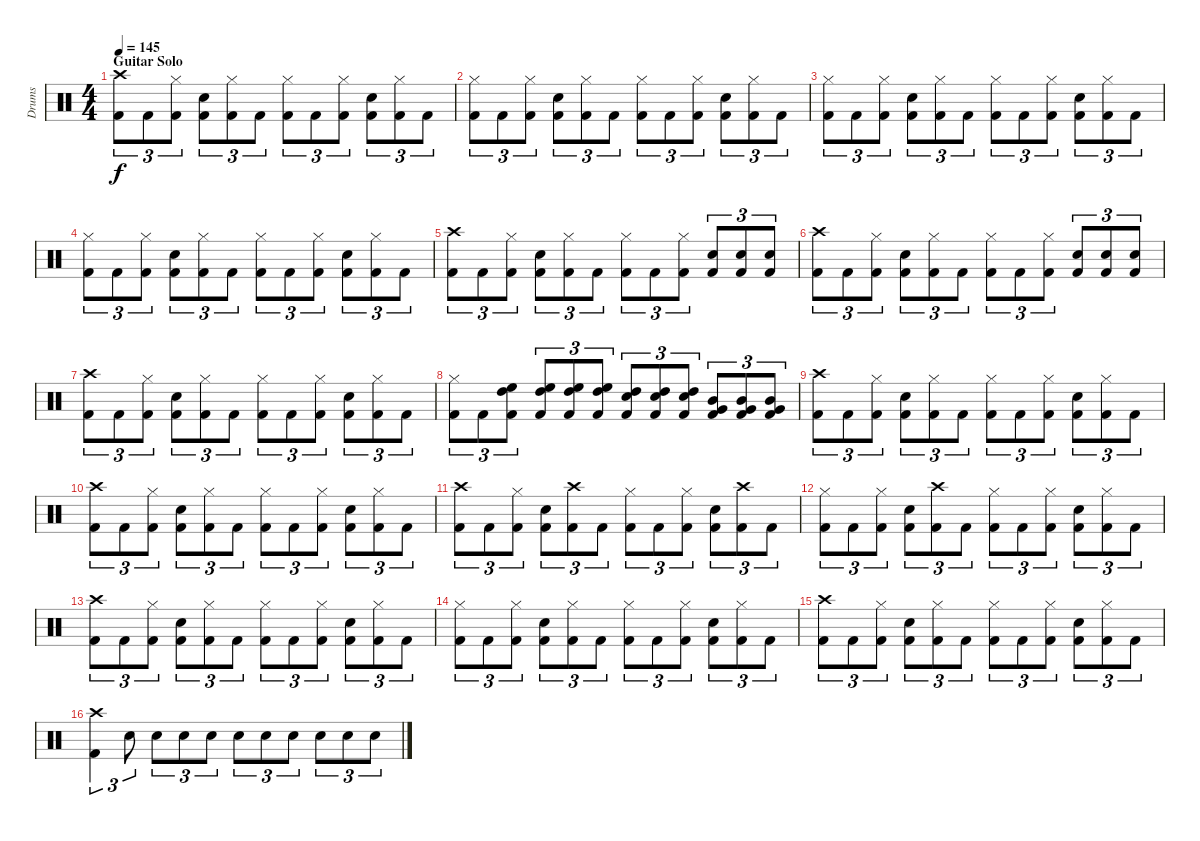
\track ("Drums" "Drums") {instrument percussion}
\staff {score}
\articulation defaults
\ts (4 4)
\section ("" "Guitar Solo")
\tempo 145
\clef neutral
\ks c
("Crash high (hit)" "Kick (hit) 2").8{tu (3 2) dy f} "Kick (hit) 2".8{tu (3 2)} ("Hi-Hat (closed)" "Kick (hit) 2").8{tu (3 2)} ("Snare (hit) 2" "Kick (hit) 2").8{tu (3 2)} ("Hi-Hat (closed)" "Kick (hit) 2").8{tu (3 2)} "Kick (hit) 2".8{tu (3 2)} ("Hi-Hat (closed)" "Kick (hit) 2").8{tu (3 2)} "Kick (hit) 2".8{tu (3 2)} ("Hi-Hat (closed)" "Kick (hit) 2").8{tu (3 2)} ("Snare (hit) 2" "Kick (hit) 2").8{tu (3 2)} ("Hi-Hat (closed)" "Kick (hit) 2").8{tu (3 2)} "Kick (hit) 2".8{tu (3 2)} |
("Kick (hit) 2" "Hi-Hat (closed)").8{tu (3 2)} "Kick (hit) 2".8{tu (3 2)} ("Hi-Hat (closed)" "Kick (hit) 2").8{tu (3 2)} ("Snare (hit) 2" "Kick (hit) 2").8{tu (3 2)} ("Hi-Hat (closed)" "Kick (hit) 2").8{tu (3 2)} "Kick (hit) 2".8{tu (3 2)} ("Hi-Hat (closed)" "Kick (hit) 2").8{tu (3 2)} "Kick (hit) 2".8{tu (3 2)} ("Hi-Hat (closed)" "Kick (hit) 2").8{tu (3 2)} ("Snare (hit) 2" "Kick (hit) 2").8{tu (3 2)} ("Hi-Hat (closed)" "Kick (hit) 2").8{tu (3 2)} "Kick (hit) 2".8{tu (3 2)} |
("Kick (hit) 2" "Hi-Hat (closed)").8{tu (3 2)} "Kick (hit) 2".8{tu (3 2)} ("Hi-Hat (closed)" "Kick (hit) 2").8{tu (3 2)} ("Snare (hit) 2" "Kick (hit) 2").8{tu (3 2)} ("Hi-Hat (closed)" "Kick (hit) 2").8{tu (3 2)} "Kick (hit) 2".8{tu (3 2)} ("Hi-Hat (closed)" "Kick (hit) 2").8{tu (3 2)} "Kick (hit) 2".8{tu (3 2)} ("Hi-Hat (closed)" "Kick (hit) 2").8{tu (3 2)} ("Snare (hit) 2" "Kick (hit) 2").8{tu (3 2)} ("Hi-Hat (closed)" "Kick (hit) 2").8{tu (3 2)} "Kick (hit) 2".8{tu (3 2)} |
("Kick (hit) 2" "Hi-Hat (closed)").8{tu (3 2)} "Kick (hit) 2".8{tu (3 2)} ("Hi-Hat (closed)" "Kick (hit) 2").8{tu (3 2)} ("Snare (hit) 2" "Kick (hit) 2").8{tu (3 2)} ("Hi-Hat (closed)" "Kick (hit) 2").8{tu (3 2)} "Kick (hit) 2".8{tu (3 2)} ("Hi-Hat (closed)" "Kick (hit) 2").8{tu (3 2)} "Kick (hit) 2".8{tu (3 2)} ("Hi-Hat (closed)" "Kick (hit) 2").8{tu (3 2)} ("Snare (hit) 2" "Kick (hit) 2").8{tu (3 2)} ("Hi-Hat (closed)" "Kick (hit) 2").8{tu (3 2)} "Kick (hit) 2".8{tu (3 2)} |
("Kick (hit) 2" "Crash high (hit)").8{tu (3 2)} "Kick (hit) 2".8{tu (3 2)} ("Hi-Hat (closed)" "Kick (hit) 2").8{tu (3 2)} ("Snare (hit) 2" "Kick (hit) 2").8{tu (3 2)} ("Hi-Hat (closed)" "Kick (hit) 2").8{tu (3 2)} "Kick (hit) 2".8{tu (3 2)} ("Hi-Hat (closed)" "Kick (hit) 2").8{tu (3 2)} "Kick (hit) 2".8{tu (3 2)} ("Hi-Hat (closed)" "Kick (hit) 2").8{tu (3 2)} ("Kick (hit) 2" "Electric Snare (hit)").8{tu (3 2)} ("Kick (hit) 2" "Electric Snare (hit)").8{tu (3 2)} ("Kick (hit) 2" "Electric Snare (hit)").8{tu (3 2)} |
("Crash high (hit)" "Kick (hit) 2").8{tu (3 2)} "Kick (hit) 2".8{tu (3 2)} ("Hi-Hat (closed)" "Kick (hit) 2").8{tu (3 2)} ("Snare (hit) 2" "Kick (hit) 2").8{tu (3 2)} ("Hi-Hat (closed)" "Kick (hit) 2").8{tu (3 2)} "Kick (hit) 2".8{tu (3 2)} ("Hi-Hat (closed)" "Kick (hit) 2").8{tu (3 2)} "Kick (hit) 2".8{tu (3 2)} ("Hi-Hat (closed)" "Kick (hit) 2").8{tu (3 2)} ("Snare (hit) 2" "Kick (hit) 2").8{tu (3 2)} ("Kick (hit) 2" "Electric Snare (hit)").8{tu (3 2)} ("Kick (hit) 2" "Electric Snare (hit)").8{tu (3 2)} |
("Crash high (hit)" "Kick (hit) 2").8{tu (3 2)} "Kick (hit) 2".8{tu (3 2)} ("Hi-Hat (closed)" "Kick (hit) 2").8{tu (3 2)} ("Snare (hit) 2" "Kick (hit) 2").8{tu (3 2)} ("Hi-Hat (closed)" "Kick (hit) 2").8{tu (3 2)} "Kick (hit) 2".8{tu (3 2)} ("Hi-Hat (closed)" "Kick (hit) 2").8{tu (3 2)} "Kick (hit) 2".8{tu (3 2)} ("Hi-Hat (closed)" "Kick (hit) 2").8{tu (3 2)} ("Snare (hit) 2" "Kick (hit) 2").8{tu (3 2)} ("Hi-Hat (closed)" "Kick (hit) 2").8{tu (3 2)} "Kick (hit) 2".8{tu (3 2)} |
("Hi-Hat (closed)" "Kick (hit) 2").8{tu (3 2)} "Kick (hit) 2".8{tu (3 2)} ("Kick (hit) 2" "High Floor Tom (hit)" "High Tom (hit)").8{tu (3 2)} ("Kick (hit) 2" "High Tom (hit)" "High Floor Tom (hit)").8{tu (3 2)} ("Kick (hit) 2" "High Tom (hit)" "High Floor Tom (hit)").8{tu (3 2)} ("Kick (hit) 2" "High Tom (hit)" "High Floor Tom (hit)").8{tu (3 2)} ("Kick (hit) 2" "High Tom (hit)" "Electric Snare (hit)").8{tu (3 2)} ("Kick (hit) 2" "High Tom (hit)" "Electric Snare (hit)").8{tu (3 2)} ("Kick (hit) 2" "High Tom (hit)" "Electric Snare (hit)").8{tu (3 2)} ("Mid Tom (hit)" "Very Low Tom (hit)" "Kick (hit) 2").8{tu (3 2)} ("Kick (hit) 2" "Mid Tom (hit)" "Very Low Tom (hit)").8{tu (3 2)} ("Kick (hit) 2" "Very Low Tom (hit)" "Mid Tom (hit)").8{tu (3 2)} |
("Crash high (hit)" "Kick (hit) 2").8{tu (3 2)} "Kick (hit) 2".8{tu (3 2)} ("Hi-Hat (closed)" "Kick (hit) 2").8{tu (3 2)} ("Snare (hit) 2" "Kick (hit) 2").8{tu (3 2)} ("Hi-Hat (closed)" "Kick (hit) 2").8{tu (3 2)} "Kick (hit) 2".8{tu (3 2)} ("Hi-Hat (closed)" "Kick (hit) 2").8{tu (3 2)} "Kick (hit) 2".8{tu (3 2)} ("Hi-Hat (closed)" "Kick (hit) 2").8{tu (3 2)} ("Snare (hit) 2" "Kick (hit) 2").8{tu (3 2)} ("Hi-Hat (closed)" "Kick (hit) 2").8{tu (3 2)} "Kick (hit) 2".8{tu (3 2)} |
("Crash high (hit)" "Kick (hit) 2").8{tu (3 2)} "Kick (hit) 2".8{tu (3 2)} ("Hi-Hat (closed)" "Kick (hit) 2").8{tu (3 2)} ("Snare (hit) 2" "Kick (hit) 2").8{tu (3 2)} ("Hi-Hat (closed)" "Kick (hit) 2").8{tu (3 2)} "Kick (hit) 2".8{tu (3 2)} ("Hi-Hat (closed)" "Kick (hit) 2").8{tu (3 2)} "Kick (hit) 2".8{tu (3 2)} ("Hi-Hat (closed)" "Kick (hit) 2").8{tu (3 2)} ("Snare (hit) 2" "Kick (hit) 2").8{tu (3 2)} ("Hi-Hat (closed)" "Kick (hit) 2").8{tu (3 2)} "Kick (hit) 2".8{tu (3 2)} |
("Crash high (hit)" "Kick (hit) 2").8{tu (3 2)} "Kick (hit) 2".8{tu (3 2)} ("Hi-Hat (closed)" "Kick (hit) 2").8{tu (3 2)} ("Snare (hit) 2" "Kick (hit) 2").8{tu (3 2)} ("Kick (hit) 2" "Crash high (hit)").8{tu (3 2)} "Kick (hit) 2".8{tu (3 2)} ("Hi-Hat (closed)" "Kick (hit) 2").8{tu (3 2)} "Kick (hit) 2".8{tu (3 2)} ("Hi-Hat (closed)" "Kick (hit) 2").8{tu (3 2)} ("Snare (hit) 2" "Kick (hit) 2").8{tu (3 2)} ("Kick (hit) 2" "Crash high (hit)").8{tu (3 2)} "Kick (hit) 2".8{tu (3 2)} |
("Kick (hit) 2" "Hi-Hat (closed)").8{tu (3 2)} "Kick (hit) 2".8{tu (3 2)} ("Hi-Hat (closed)" "Kick (hit) 2").8{tu (3 2)} ("Snare (hit) 2" "Kick (hit) 2").8{tu (3 2)} ("Crash high (hit)" "Kick (hit) 2").8{tu (3 2)} "Kick (hit) 2".8{tu (3 2)} ("Hi-Hat (closed)" "Kick (hit) 2").8{tu (3 2)} "Kick (hit) 2".8{tu (3 2)} ("Hi-Hat (closed)" "Kick (hit) 2").8{tu (3 2)} ("Snare (hit) 2" "Kick (hit) 2").8{tu (3 2)} ("Hi-Hat (closed)" "Kick (hit) 2").8{tu (3 2)} "Kick (hit) 2".8{tu (3 2)} |
("Crash high (hit)" "Kick (hit) 2").8{tu (3 2)} "Kick (hit) 2".8{tu (3 2)} ("Hi-Hat (closed)" "Kick (hit) 2").8{tu (3 2)} ("Snare (hit) 2" "Kick (hit) 2").8{tu (3 2)} ("Hi-Hat (closed)" "Kick (hit) 2").8{tu (3 2)} "Kick (hit) 2".8{tu (3 2)} ("Hi-Hat (closed)" "Kick (hit) 2").8{tu (3 2)} "Kick (hit) 2".8{tu (3 2)} ("Hi-Hat (closed)" "Kick (hit) 2").8{tu (3 2)} ("Snare (hit) 2" "Kick (hit) 2").8{tu (3 2)} ("Hi-Hat (closed)" "Kick (hit) 2").8{tu (3 2)} "Kick (hit) 2".8{tu (3 2)} |
("Hi-Hat (closed)" "Kick (hit) 2").8{tu (3 2)} "Kick (hit) 2".8{tu (3 2)} ("Hi-Hat (closed)" "Kick (hit) 2").8{tu (3 2)} ("Snare (hit) 2" "Kick (hit) 2").8{tu (3 2)} ("Hi-Hat (closed)" "Kick (hit) 2").8{tu (3 2)} "Kick (hit) 2".8{tu (3 2)} ("Hi-Hat (closed)" "Kick (hit) 2").8{tu (3 2)} "Kick (hit) 2".8{tu (3 2)} ("Hi-Hat (closed)" "Kick (hit) 2").8{tu (3 2)} ("Snare (hit) 2" "Kick (hit) 2").8{tu (3 2)} ("Hi-Hat (closed)" "Kick (hit) 2").8{tu (3 2)} "Kick (hit) 2".8{tu (3 2)} |
("Crash high (hit)" "Kick (hit) 2").8{tu (3 2)} "Kick (hit) 2".8{tu (3 2)} ("Hi-Hat (closed)" "Kick (hit) 2").8{tu (3 2)} ("Snare (hit) 2" "Kick (hit) 2").8{tu (3 2)} ("Hi-Hat (closed)" "Kick (hit) 2").8{tu (3 2)} "Kick (hit) 2".8{tu (3 2)} ("Hi-Hat (closed)" "Kick (hit) 2").8{tu (3 2)} "Kick (hit) 2".8{tu (3 2)} ("Hi-Hat (closed)" "Kick (hit) 2").8{tu (3 2)} ("Snare (hit) 2" "Kick (hit) 2").8{tu (3 2)} ("Hi-Hat (closed)" "Kick (hit) 2").8{tu (3 2)} "Kick (hit) 2".8{tu (3 2)} |
("Crash high (hit)" "Kick (hit) 2").4{tu (3 2)} "Snare (hit) 2".8{tu (3 2)} "Snare (hit) 2".8{tu (3 2)} "Snare (hit) 2".8{tu (3 2)} "Snare (hit) 2".8{tu (3 2)} "Snare (hit) 2".8{tu (3 2)} "Snare (hit) 2".8{tu (3 2)} "Snare (hit) 2".8{tu (3 2)} "Snare (hit) 2".8{tu (3 2)} "Snare (hit) 2".8{tu (3 2)} "Snare (hit) 2".8{tu (3 2)}
